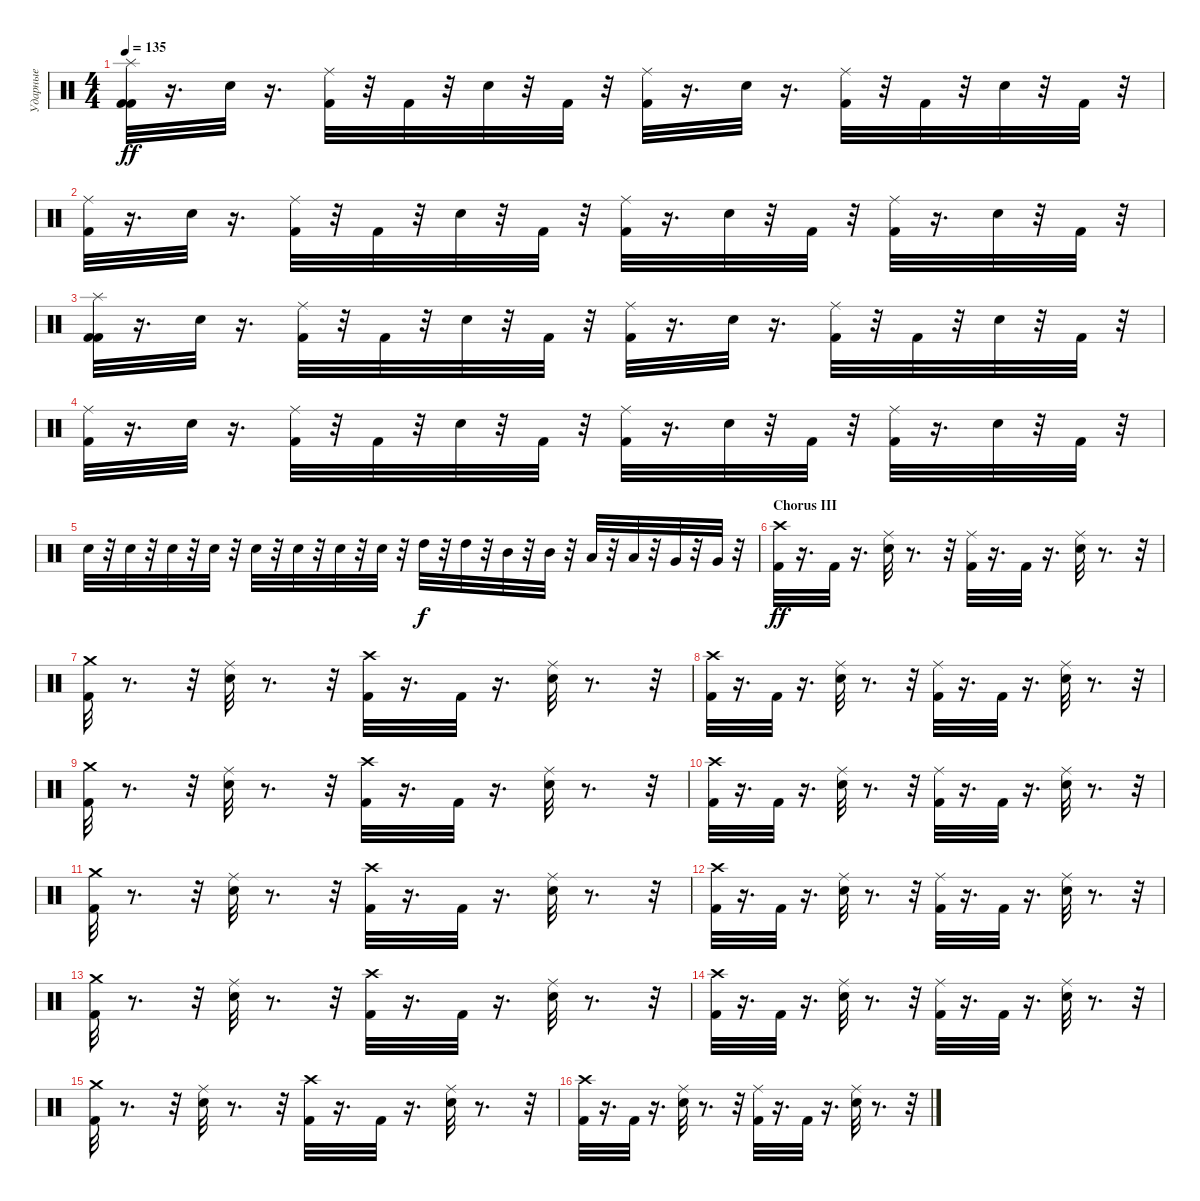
\track ("Ударные" "Ударные") {instrument percussion}
\staff {score}
\articulation defaults
\ts (4 4)
\tempo 135
\clef neutral
\ks c
("Kick (hit) 2" "Kick (hit) 2" "Splash (hit)").32{dy ff} r.16{d} "Electric Snare (hit)".32 r.16{d} ("Ride (middle)" "Kick (hit) 2").32 r.32 "Kick (hit) 2".32 r.32 "Electric Snare (hit)".32 r.32 "Kick (hit) 2".32 r.32 ("Ride (middle)" "Kick (hit) 2").32 r.16{d} "Electric Snare (hit)".32 r.16{d} ("Ride (middle)" "Kick (hit) 2").32 r.32 "Kick (hit) 2".32 r.32 "Electric Snare (hit)".32 r.32 "Kick (hit) 2".32 r.32 |
("Ride (middle)" "Kick (hit) 2").32 r.16{d} "Electric Snare (hit)".32 r.16{d} ("Ride (middle)" "Kick (hit) 2").32 r.32 "Kick (hit) 2".32 r.32 "Electric Snare (hit)".32 r.32 "Kick (hit) 2".32 r.32 ("Ride (middle)" "Kick (hit) 2").32 r.16{d} "Electric Snare (hit)".32 r.32 "Kick (hit) 2".32 r.32 ("Ride (middle)" "Kick (hit) 2").32 r.16{d} "Electric Snare (hit)".32 r.32 "Kick (hit) 2".32 r.32 |
("Kick (hit) 2" "Kick (hit) 2" "Splash (hit)").32 r.16{d} "Electric Snare (hit)".32 r.16{d} ("Ride (middle)" "Kick (hit) 2").32 r.32 "Kick (hit) 2".32 r.32 "Electric Snare (hit)".32 r.32 "Kick (hit) 2".32 r.32 ("Ride (middle)" "Kick (hit) 2").32 r.16{d} "Electric Snare (hit)".32 r.16{d} ("Ride (middle)" "Kick (hit) 2").32 r.32 "Kick (hit) 2".32 r.32 "Electric Snare (hit)".32 r.32 "Kick (hit) 2".32 r.32 |
("Ride (middle)" "Kick (hit) 2").32 r.16{d} "Electric Snare (hit)".32 r.16{d} ("Ride (middle)" "Kick (hit) 2").32 r.32 "Kick (hit) 2".32 r.32 "Electric Snare (hit)".32 r.32 "Kick (hit) 2".32 r.32 ("Ride (middle)" "Kick (hit) 2").32 r.16{d} "Electric Snare (hit)".32 r.32 "Kick (hit) 2".32 r.32 ("Ride (middle)" "Kick (hit) 2").32 r.16{d} "Electric Snare (hit)".32 r.32 "Kick (hit) 2".32 r.32 |
"Electric Snare (hit)".32 r.32 "Electric Snare (hit)".32 r.32 "Electric Snare (hit)".32 r.32 "Electric Snare (hit)".32 r.32 "Electric Snare (hit)".32 r.32 "Electric Snare (hit)".32 r.32 "Electric Snare (hit)".32 r.32 "Electric Snare (hit)".32 r.32 "High Tom (hit)".32{dy f} r.32 "High Tom (hit)".32 r.32 "Mid Tom (hit)".32 r.32 "Mid Tom (hit)".32 r.32 "Low Tom (hit)".32 r.32 "Low Tom (hit)".32 r.32 "Very Low Tom (hit)".32 r.32 "Very Low Tom (hit)".32 r.32 |
\section ("" "Chorus III")
("Crash high (hit)" "Kick (hit) 2").32{dy ff} r.16{d} "Kick (hit) 2".32 r.16{d} ("Ride (middle)" "Electric Snare (hit)").32 r.8{d} r.32 ("Ride (middle)" "Kick (hit) 2").32 r.16{d} "Kick (hit) 2".32 r.16{d} ("Ride (middle)" "Electric Snare (hit)").32 r.8{d} r.32 |
("Crash medium (hit)" "Kick (hit) 2").32 r.8{d} r.32 ("Ride (middle)" "Electric Snare (hit)").32 r.8{d} r.32 ("Crash high (hit)" "Kick (hit) 2").32 r.16{d} "Kick (hit) 2".32 r.16{d} ("Ride (middle)" "Electric Snare (hit)").32 r.8{d} r.32 |
("Crash high (hit)" "Kick (hit) 2").32 r.16{d} "Kick (hit) 2".32 r.16{d} ("Ride (middle)" "Electric Snare (hit)").32 r.8{d} r.32 ("Ride (middle)" "Kick (hit) 2").32 r.16{d} "Kick (hit) 2".32 r.16{d} ("Ride (middle)" "Electric Snare (hit)").32 r.8{d} r.32 |
("Kick (hit) 2" "Crash medium (hit)").32 r.8{d} r.32 ("Electric Snare (hit)" "Ride (middle)").32 r.8{d} r.32 ("Kick (hit) 2" "Crash high (hit)").32 r.16{d} "Kick (hit) 2".32 r.16{d} ("Electric Snare (hit)" "Ride (middle)").32 r.8{d} r.32 |
("Crash high (hit)" "Kick (hit) 2").32 r.16{d} "Kick (hit) 2".32 r.16{d} ("Ride (middle)" "Electric Snare (hit)").32 r.8{d} r.32 ("Ride (middle)" "Kick (hit) 2").32 r.16{d} "Kick (hit) 2".32 r.16{d} ("Ride (middle)" "Electric Snare (hit)").32 r.8{d} r.32 |
("Crash medium (hit)" "Kick (hit) 2").32 r.8{d} r.32 ("Ride (middle)" "Electric Snare (hit)").32 r.8{d} r.32 ("Crash high (hit)" "Kick (hit) 2").32 r.16{d} "Kick (hit) 2".32 r.16{d} ("Ride (middle)" "Electric Snare (hit)").32 r.8{d} r.32 |
("Crash high (hit)" "Kick (hit) 2").32 r.16{d} "Kick (hit) 2".32 r.16{d} ("Ride (middle)" "Electric Snare (hit)").32 r.8{d} r.32 ("Ride (middle)" "Kick (hit) 2").32 r.16{d} "Kick (hit) 2".32 r.16{d} ("Ride (middle)" "Electric Snare (hit)").32 r.8{d} r.32 |
("Kick (hit) 2" "Crash medium (hit)").32 r.8{d} r.32 ("Electric Snare (hit)" "Ride (middle)").32 r.8{d} r.32 ("Kick (hit) 2" "Crash high (hit)").32 r.16{d} "Kick (hit) 2".32 r.16{d} ("Electric Snare (hit)" "Ride (middle)").32 r.8{d} r.32 |
("Crash high (hit)" "Kick (hit) 2").32 r.16{d} "Kick (hit) 2".32 r.16{d} ("Ride (middle)" "Electric Snare (hit)").32 r.8{d} r.32 ("Ride (middle)" "Kick (hit) 2").32 r.16{d} "Kick (hit) 2".32 r.16{d} ("Ride (middle)" "Electric Snare (hit)").32 r.8{d} r.32 |
("Crash medium (hit)" "Kick (hit) 2").32 r.8{d} r.32 ("Ride (middle)" "Electric Snare (hit)").32 r.8{d} r.32 ("Crash high (hit)" "Kick (hit) 2").32 r.16{d} "Kick (hit) 2".32 r.16{d} ("Ride (middle)" "Electric Snare (hit)").32 r.8{d} r.32 |
("Crash high (hit)" "Kick (hit) 2").32 r.16{d} "Kick (hit) 2".32 r.16{d} ("Ride (middle)" "Electric Snare (hit)").32 r.8{d} r.32 ("Ride (middle)" "Kick (hit) 2").32 r.16{d} "Kick (hit) 2".32 r.16{d} ("Ride (middle)" "Electric Snare (hit)").32 r.8{d} r.32
